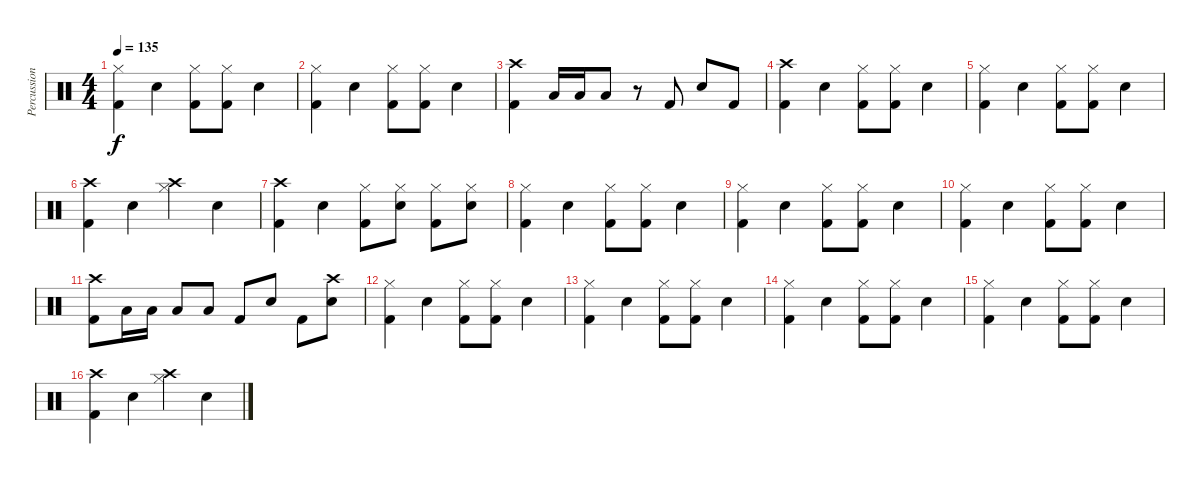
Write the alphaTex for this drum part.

\track ("Percussion" "Percussion") {instrument percussion}
\staff {score}
\articulation defaults
\ts (4 4)
\tempo 135
\clef neutral
\ks c
("Hi-Hat (closed)" "Kick (hit) 2").4{dy f} "Snare (hit) 2".4 ("Kick (hit) 2" "Hi-Hat (closed)").8 ("Kick (hit) 2" "Hi-Hat (closed)").8 "Snare (hit) 2".4 |
("Hi-Hat (closed)" "Kick (hit) 2").4 "Snare (hit) 2".4 ("Kick (hit) 2" "Hi-Hat (closed)").8 ("Kick (hit) 2" "Hi-Hat (closed)").8 "Snare (hit) 2".4 |
("Crash high (hit)" "Kick (hit) 2").4 "Low Tom (hit)".16 "Low Tom (hit)".16 "Low Tom (hit)".8 r.8 "Kick (hit) 2".8 "Snare (hit) 2".8 "Kick (hit) 2".8 |
("Crash high (hit)" "Kick (hit) 2").4 "Snare (hit) 2".4 ("Kick (hit) 2" "Hi-Hat (closed)").8 ("Kick (hit) 2" "Hi-Hat (closed)").8 "Snare (hit) 2".4 |
("Hi-Hat (closed)" "Kick (hit) 2").4 "Snare (hit) 2".4 ("Kick (hit) 2" "Hi-Hat (closed)").8 ("Kick (hit) 2" "Hi-Hat (closed)").8 "Snare (hit) 2".4 |
("Crash high (hit)" "Kick (hit) 2").4 "Snare (hit) 2".4 ("Crash high (hit)" "Hi-Hat (closed)").4 "Snare (hit) 2".4 |
("Crash high (hit)" "Kick (hit) 2").4 "Snare (hit) 2".4 ("Kick (hit) 2" "Hi-Hat (closed)").8 ("Snare (hit) 2" "Hi-Hat (closed)").8 ("Kick (hit) 2" "Hi-Hat (closed)").8 ("Snare (hit) 2" "Hi-Hat (closed)").8 |
("Hi-Hat (closed)" "Kick (hit) 2").4 "Snare (hit) 2".4 ("Kick (hit) 2" "Hi-Hat (closed)").8 ("Kick (hit) 2" "Hi-Hat (closed)").8 "Snare (hit) 2".4 |
("Hi-Hat (closed)" "Kick (hit) 2").4 "Snare (hit) 2".4 ("Kick (hit) 2" "Hi-Hat (closed)").8 ("Kick (hit) 2" "Hi-Hat (closed)").8 "Snare (hit) 2".4 |
("Hi-Hat (closed)" "Kick (hit) 2").4 "Snare (hit) 2".4 ("Kick (hit) 2" "Hi-Hat (closed)").8 ("Kick (hit) 2" "Hi-Hat (closed)").8 "Snare (hit) 2".4 |
("Crash high (hit)" "Kick (hit) 2").8 "Low Tom (hit)".16 "Low Tom (hit)".16 "Low Tom (hit)".8 "Low Tom (hit)".8 "Kick (hit) 2".8 "Snare (hit) 2".8 "Kick (hit) 2".8 ("Snare (hit) 2" "Crash high (hit)").8 |
("Hi-Hat (closed)" "Kick (hit) 2").4 "Snare (hit) 2".4 ("Kick (hit) 2" "Hi-Hat (closed)").8 ("Kick (hit) 2" "Hi-Hat (closed)").8 "Snare (hit) 2".4 |
("Hi-Hat (closed)" "Kick (hit) 2").4 "Snare (hit) 2".4 ("Kick (hit) 2" "Hi-Hat (closed)").8 ("Kick (hit) 2" "Hi-Hat (closed)").8 "Snare (hit) 2".4 |
("Hi-Hat (closed)" "Kick (hit) 2").4 "Snare (hit) 2".4 ("Kick (hit) 2" "Hi-Hat (closed)").8 ("Kick (hit) 2" "Hi-Hat (closed)").8 "Snare (hit) 2".4 |
("Hi-Hat (closed)" "Kick (hit) 2").4 "Snare (hit) 2".4 ("Kick (hit) 2" "Hi-Hat (closed)").8 ("Kick (hit) 2" "Hi-Hat (closed)").8 "Snare (hit) 2".4 |
("Crash high (hit)" "Kick (hit) 2").4 "Snare (hit) 2".4 ("Crash high (hit)" "Hi-Hat (closed)").4 "Snare (hit) 2".4
